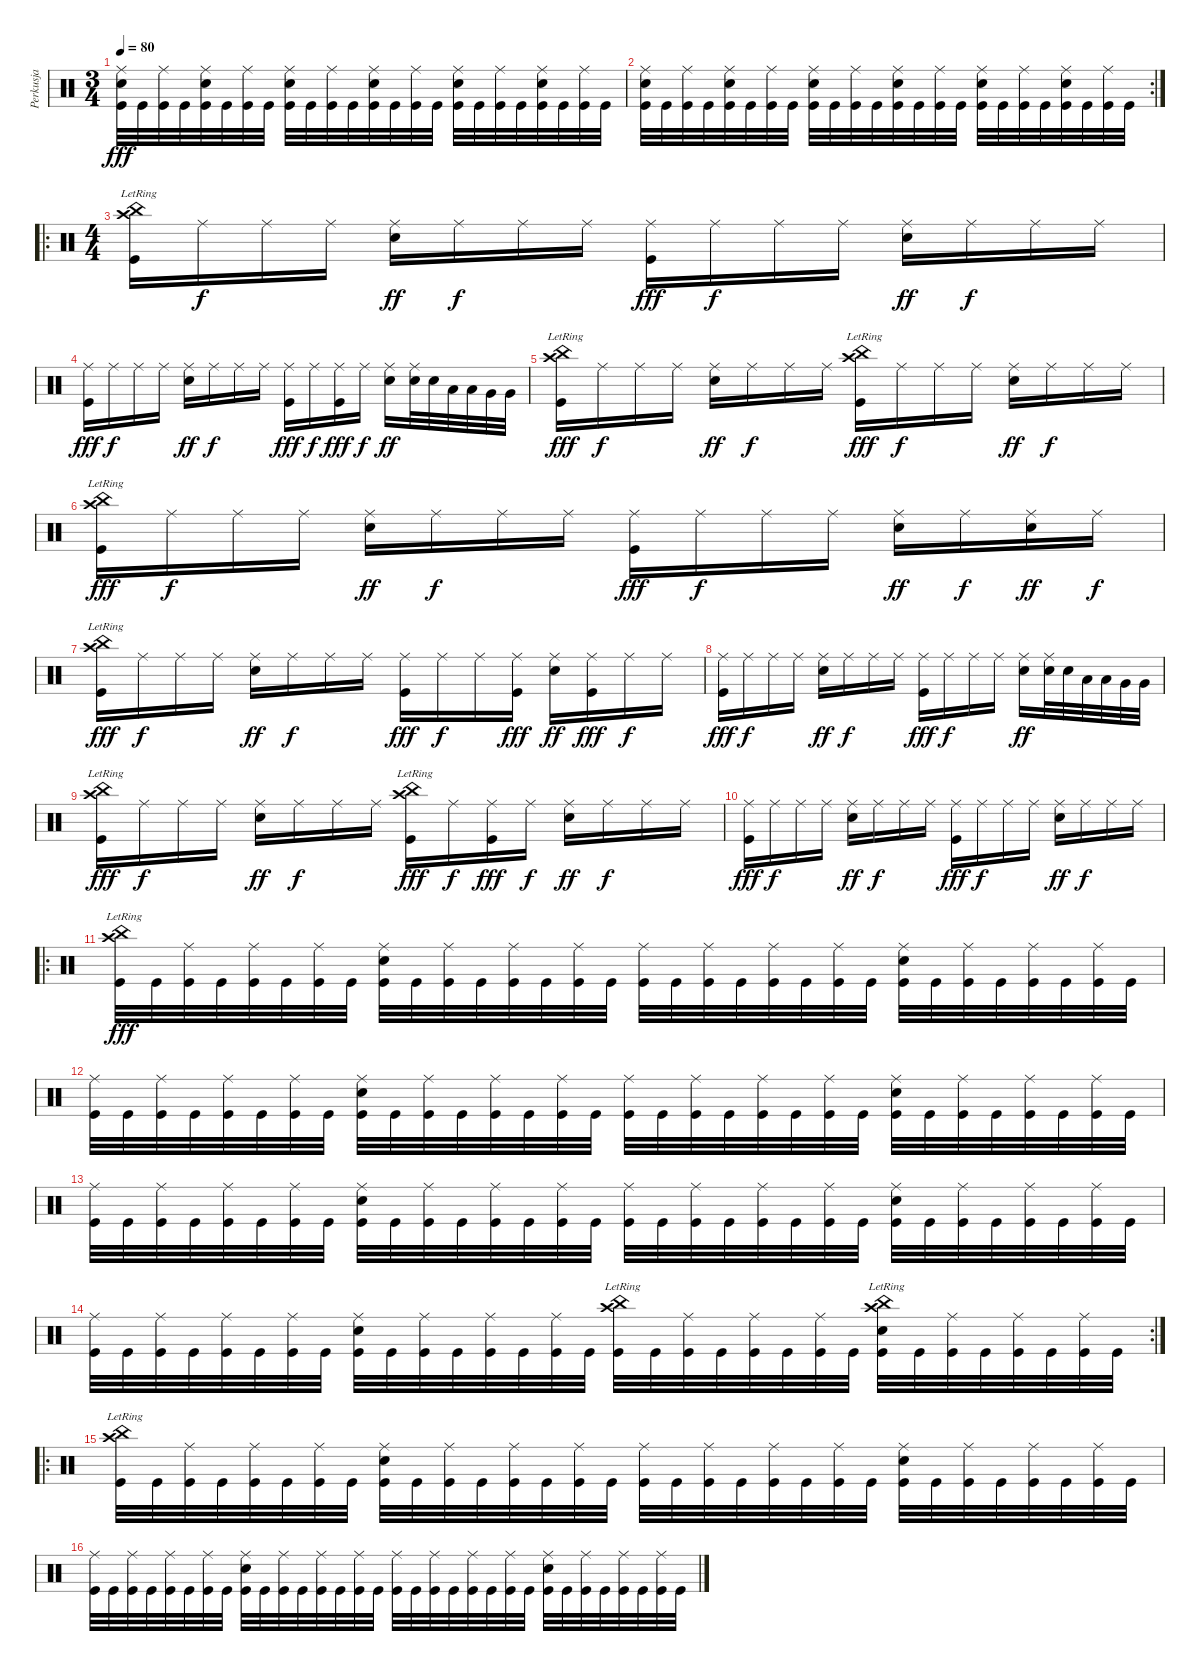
\track ("Perkusja" "Perkusja") {instrument percussion}
\staff {score}
\articulation defaults
\ts (3 4)
\tempo 80
\clef neutral
\ks c
("Ride (middle)" "Electric Snare (hit)" "Kick (hit)").32{dy fff} "Kick (hit)".32 ("Ride (middle)" "Kick (hit)").32 "Kick (hit)".32 ("Ride (middle)" "Electric Snare (hit)" "Kick (hit)").32 "Kick (hit)".32 ("Ride (middle)" "Kick (hit)").32 "Kick (hit)".32 ("Ride (middle)" "Electric Snare (hit)" "Kick (hit)").32 "Kick (hit)".32 ("Ride (middle)" "Kick (hit)").32 "Kick (hit)".32 ("Ride (middle)" "Electric Snare (hit)" "Kick (hit)").32 "Kick (hit)".32 ("Ride (middle)" "Kick (hit)").32 "Kick (hit)".32 ("Ride (middle)" "Electric Snare (hit)" "Kick (hit)").32 "Kick (hit)".32 ("Ride (middle)" "Kick (hit)").32 "Kick (hit)".32 ("Ride (middle)" "Electric Snare (hit)" "Kick (hit)").32 "Kick (hit)".32 ("Ride (middle)" "Kick (hit)").32 "Kick (hit)".32 |
\rc 2
("Ride (middle)" "Electric Snare (hit)" "Kick (hit)").32 "Kick (hit)".32 ("Ride (middle)" "Kick (hit)").32 "Kick (hit)".32 ("Ride (middle)" "Electric Snare (hit)" "Kick (hit)").32 "Kick (hit)".32 ("Ride (middle)" "Kick (hit)").32 "Kick (hit)".32 ("Ride (middle)" "Electric Snare (hit)" "Kick (hit)").32 "Kick (hit)".32 ("Ride (middle)" "Kick (hit)").32 "Kick (hit)".32 ("Ride (middle)" "Electric Snare (hit)" "Kick (hit)").32 "Kick (hit)".32 ("Ride (middle)" "Kick (hit)").32 "Kick (hit)".32 ("Ride (middle)" "Electric Snare (hit)" "Kick (hit)").32 "Kick (hit)".32 ("Ride (middle)" "Kick (hit)").32 "Kick (hit)".32 ("Ride (middle)" "Electric Snare (hit)" "Kick (hit)").32 "Kick (hit)".32 ("Ride (middle)" "Kick (hit)").32 "Kick (hit)".32 |
\ro
\ts (4 4)
("China (hit)"{lr} "Crash high (hit)"{lr} "Kick (hit)").16 "Ride (middle)".16{dy f} "Ride (middle)".16 "Ride (middle)".16 ("Ride (middle)" "Electric Snare (hit)").16{dy ff} "Ride (middle)".16{dy f} "Ride (middle)".16 "Ride (middle)".16 ("Ride (middle)" "Kick (hit)").16{dy fff} "Ride (middle)".16{dy f} "Ride (middle)".16 "Ride (middle)".16 ("Ride (middle)" "Electric Snare (hit)").16{dy ff} "Ride (middle)".16{dy f} "Ride (middle)".16 "Ride (middle)".16 |
("Ride (middle)" "Kick (hit)").16{dy fff} "Ride (middle)".16{dy f} "Ride (middle)".16 "Ride (middle)".16 ("Ride (middle)" "Electric Snare (hit)").16{dy ff} "Ride (middle)".16{dy f} "Ride (middle)".16 "Ride (middle)".16 ("Ride (middle)" "Kick (hit)").16{dy fff} "Ride (middle)".16{dy f} ("Ride (middle)" "Kick (hit)").16{dy fff} "Ride (middle)".16{dy f} ("Ride (middle)" "Electric Snare (hit)").16{dy ff} ("Ride (middle)" "Electric Snare (hit)").32 "Electric Snare (hit)".32 "Low Floor Tom (hit)".32 "Low Floor Tom (hit)".32 "Very Low Tom (hit)".32 "Very Low Tom (hit)".32 |
("China (hit)"{lr} "Crash high (hit)"{lr} "Kick (hit)").16{dy fff} "Ride (middle)".16{dy f} "Ride (middle)".16 "Ride (middle)".16 ("Ride (middle)" "Electric Snare (hit)").16{dy ff} "Ride (middle)".16{dy f} "Ride (middle)".16 "Ride (middle)".16 ("China (hit)"{lr} "Crash high (hit)"{lr} "Kick (hit)").16{dy fff} "Ride (middle)".16{dy f} "Ride (middle)".16 "Ride (middle)".16 ("Ride (middle)" "Electric Snare (hit)").16{dy ff} "Ride (middle)".16{dy f} "Ride (middle)".16 "Ride (middle)".16 |
("China (hit)"{lr} "Crash high (hit)"{lr} "Kick (hit)").16{dy fff} "Ride (middle)".16{dy f} "Ride (middle)".16 "Ride (middle)".16 ("Ride (middle)" "Electric Snare (hit)").16{dy ff} "Ride (middle)".16{dy f} "Ride (middle)".16 "Ride (middle)".16 ("Ride (middle)" "Kick (hit)").16{dy fff} "Ride (middle)".16{dy f} "Ride (middle)".16 "Ride (middle)".16 ("Ride (middle)" "Electric Snare (hit)").16{dy ff} "Ride (middle)".16{dy f} ("Ride (middle)" "Electric Snare (hit)").16{dy ff} "Ride (middle)".16{dy f} |
("China (hit)"{lr} "Crash high (hit)"{lr} "Kick (hit)").16{dy fff} "Ride (middle)".16{dy f} "Ride (middle)".16 "Ride (middle)".16 ("Ride (middle)" "Electric Snare (hit)").16{dy ff} "Ride (middle)".16{dy f} "Ride (middle)".16 "Ride (middle)".16 ("Ride (middle)" "Kick (hit)").16{dy fff} "Ride (middle)".16{dy f} "Ride (middle)".16 ("Ride (middle)" "Kick (hit)").16{dy fff} ("Ride (middle)" "Electric Snare (hit)").16{dy ff} ("Ride (middle)" "Kick (hit)").16{dy fff} "Ride (middle)".16{dy f} "Ride (middle)".16 |
("Ride (middle)" "Kick (hit)").16{dy fff} "Ride (middle)".16{dy f} "Ride (middle)".16 "Ride (middle)".16 ("Ride (middle)" "Electric Snare (hit)").16{dy ff} "Ride (middle)".16{dy f} "Ride (middle)".16 "Ride (middle)".16 ("Ride (middle)" "Kick (hit)").16{dy fff} "Ride (middle)".16{dy f} "Ride (middle)".16 "Ride (middle)".16 ("Ride (middle)" "Electric Snare (hit)").16{dy ff} ("Ride (middle)" "Electric Snare (hit)").32 "Electric Snare (hit)".32 "Low Floor Tom (hit)".32 "Low Floor Tom (hit)".32 "Very Low Tom (hit)".32 "Very Low Tom (hit)".32 |
("China (hit)"{lr} "Crash high (hit)"{lr} "Kick (hit)").16{dy fff} "Ride (middle)".16{dy f} "Ride (middle)".16 "Ride (middle)".16 ("Ride (middle)" "Electric Snare (hit)").16{dy ff} "Ride (middle)".16{dy f} "Ride (middle)".16 "Ride (middle)".16 ("China (hit)"{lr} "Crash high (hit)"{lr} "Kick (hit)").16{dy fff} "Ride (middle)".16{dy f} ("Ride (middle)" "Kick (hit)").16{dy fff} "Ride (middle)".16{dy f} ("Ride (middle)" "Electric Snare (hit)").16{dy ff} "Ride (middle)".16{dy f} "Ride (middle)".16 "Ride (middle)".16 |
("Ride (middle)" "Kick (hit)").16{dy fff} "Ride (middle)".16{dy f} "Ride (middle)".16 "Ride (middle)".16 ("Ride (middle)" "Electric Snare (hit)").16{dy ff} "Ride (middle)".16{dy f} "Ride (middle)".16 "Ride (middle)".16 ("Ride (middle)" "Kick (hit)").16{dy fff} "Ride (middle)".16{dy f} "Ride (middle)".16 "Ride (middle)".16 ("Ride (middle)" "Electric Snare (hit)").16{dy ff} "Ride (middle)".16{dy f} "Ride (middle)".16 "Ride (middle)".16 |
\ro
("China (hit)"{lr} "Crash high (hit)"{lr} "Kick (hit)").32{dy fff} "Kick (hit)".32 ("Ride (middle)" "Kick (hit)").32 "Kick (hit)".32 ("Ride (middle)" "Kick (hit)").32 "Kick (hit)".32 ("Ride (middle)" "Kick (hit)").32 "Kick (hit)".32 ("Ride (middle)" "Electric Snare (hit)" "Kick (hit)").32 "Kick (hit)".32 ("Ride (middle)" "Kick (hit)").32 "Kick (hit)".32 ("Ride (middle)" "Kick (hit)").32 "Kick (hit)".32 ("Ride (middle)" "Kick (hit)").32 "Kick (hit)".32 ("Ride (middle)" "Kick (hit)").32 "Kick (hit)".32 ("Ride (middle)" "Kick (hit)").32 "Kick (hit)".32 ("Ride (middle)" "Kick (hit)").32 "Kick (hit)".32 ("Ride (middle)" "Kick (hit)").32 "Kick (hit)".32 ("Ride (middle)" "Electric Snare (hit)" "Kick (hit)").32 "Kick (hit)".32 ("Ride (middle)" "Kick (hit)").32 "Kick (hit)".32 ("Ride (middle)" "Kick (hit)").32 "Kick (hit)".32 ("Ride (middle)" "Kick (hit)").32 "Kick (hit)".32 |
("Ride (middle)" "Kick (hit)").32 "Kick (hit)".32 ("Ride (middle)" "Kick (hit)").32 "Kick (hit)".32 ("Ride (middle)" "Kick (hit)").32 "Kick (hit)".32 ("Ride (middle)" "Kick (hit)").32 "Kick (hit)".32 ("Ride (middle)" "Electric Snare (hit)" "Kick (hit)").32 "Kick (hit)".32 ("Ride (middle)" "Kick (hit)").32 "Kick (hit)".32 ("Ride (middle)" "Kick (hit)").32 "Kick (hit)".32 ("Ride (middle)" "Kick (hit)").32 "Kick (hit)".32 ("Ride (middle)" "Kick (hit)").32 "Kick (hit)".32 ("Ride (middle)" "Kick (hit)").32 "Kick (hit)".32 ("Ride (middle)" "Kick (hit)").32 "Kick (hit)".32 ("Ride (middle)" "Kick (hit)").32 "Kick (hit)".32 ("Ride (middle)" "Electric Snare (hit)" "Kick (hit)").32 "Kick (hit)".32 ("Ride (middle)" "Kick (hit)").32 "Kick (hit)".32 ("Ride (middle)" "Kick (hit)").32 "Kick (hit)".32 ("Ride (middle)" "Kick (hit)").32 "Kick (hit)".32 |
("Ride (middle)" "Kick (hit)").32 "Kick (hit)".32 ("Ride (middle)" "Kick (hit)").32 "Kick (hit)".32 ("Ride (middle)" "Kick (hit)").32 "Kick (hit)".32 ("Ride (middle)" "Kick (hit)").32 "Kick (hit)".32 ("Ride (middle)" "Electric Snare (hit)" "Kick (hit)").32 "Kick (hit)".32 ("Ride (middle)" "Kick (hit)").32 "Kick (hit)".32 ("Ride (middle)" "Kick (hit)").32 "Kick (hit)".32 ("Ride (middle)" "Kick (hit)").32 "Kick (hit)".32 ("Ride (middle)" "Kick (hit)").32 "Kick (hit)".32 ("Ride (middle)" "Kick (hit)").32 "Kick (hit)".32 ("Ride (middle)" "Kick (hit)").32 "Kick (hit)".32 ("Ride (middle)" "Kick (hit)").32 "Kick (hit)".32 ("Ride (middle)" "Electric Snare (hit)" "Kick (hit)").32 "Kick (hit)".32 ("Ride (middle)" "Kick (hit)").32 "Kick (hit)".32 ("Ride (middle)" "Kick (hit)").32 "Kick (hit)".32 ("Ride (middle)" "Kick (hit)").32 "Kick (hit)".32 |
\rc 2
("Ride (middle)" "Kick (hit)").32 "Kick (hit)".32 ("Ride (middle)" "Kick (hit)").32 "Kick (hit)".32 ("Ride (middle)" "Kick (hit)").32 "Kick (hit)".32 ("Ride (middle)" "Kick (hit)").32 "Kick (hit)".32 ("Ride (middle)" "Electric Snare (hit)" "Kick (hit)").32 "Kick (hit)".32 ("Ride (middle)" "Kick (hit)").32 "Kick (hit)".32 ("Ride (middle)" "Kick (hit)").32 "Kick (hit)".32 ("Ride (middle)" "Kick (hit)").32 "Kick (hit)".32 ("China (hit)"{lr} "Crash high (hit)"{lr} "Kick (hit)").32 "Kick (hit)".32 ("Ride (middle)" "Kick (hit)").32 "Kick (hit)".32 ("Ride (middle)" "Kick (hit)").32 "Kick (hit)".32 ("Ride (middle)" "Kick (hit)").32 "Kick (hit)".32 ("China (hit)"{lr} "Crash high (hit)"{lr} "Electric Snare (hit)" "Kick (hit)").32 "Kick (hit)".32 ("Ride (middle)" "Kick (hit)").32 "Kick (hit)".32 ("Ride (middle)" "Kick (hit)").32 "Kick (hit)".32 ("Ride (middle)" "Kick (hit)").32 "Kick (hit)".32 |
\ro
("China (hit)"{lr} "Crash high (hit)"{lr} "Kick (hit)").32 "Kick (hit)".32 ("Ride (middle)" "Kick (hit)").32 "Kick (hit)".32 ("Ride (middle)" "Kick (hit)").32 "Kick (hit)".32 ("Ride (middle)" "Kick (hit)").32 "Kick (hit)".32 ("Ride (middle)" "Electric Snare (hit)" "Kick (hit)").32 "Kick (hit)".32 ("Ride (middle)" "Kick (hit)").32 "Kick (hit)".32 ("Ride (middle)" "Kick (hit)").32 "Kick (hit)".32 ("Ride (middle)" "Kick (hit)").32 "Kick (hit)".32 ("Ride (middle)" "Kick (hit)").32 "Kick (hit)".32 ("Ride (middle)" "Kick (hit)").32 "Kick (hit)".32 ("Ride (middle)" "Kick (hit)").32 "Kick (hit)".32 ("Ride (middle)" "Kick (hit)").32 "Kick (hit)".32 ("Ride (middle)" "Electric Snare (hit)" "Kick (hit)").32 "Kick (hit)".32 ("Ride (middle)" "Kick (hit)").32 "Kick (hit)".32 ("Ride (middle)" "Kick (hit)").32 "Kick (hit)".32 ("Ride (middle)" "Kick (hit)").32 "Kick (hit)".32 |
("Ride (middle)" "Kick (hit)").32 "Kick (hit)".32 ("Ride (middle)" "Kick (hit)").32 "Kick (hit)".32 ("Ride (middle)" "Kick (hit)").32 "Kick (hit)".32 ("Ride (middle)" "Kick (hit)").32 "Kick (hit)".32 ("Ride (middle)" "Electric Snare (hit)" "Kick (hit)").32 "Kick (hit)".32 ("Ride (middle)" "Kick (hit)").32 "Kick (hit)".32 ("Ride (middle)" "Kick (hit)").32 "Kick (hit)".32 ("Ride (middle)" "Kick (hit)").32 "Kick (hit)".32 ("Ride (middle)" "Kick (hit)").32 "Kick (hit)".32 ("Ride (middle)" "Kick (hit)").32 "Kick (hit)".32 ("Ride (middle)" "Kick (hit)").32 "Kick (hit)".32 ("Ride (middle)" "Kick (hit)").32 "Kick (hit)".32 ("Ride (middle)" "Electric Snare (hit)" "Kick (hit)").32 "Kick (hit)".32 ("Ride (middle)" "Kick (hit)").32 "Kick (hit)".32 ("Ride (middle)" "Kick (hit)").32 "Kick (hit)".32 ("Ride (middle)" "Kick (hit)").32 "Kick (hit)".32
